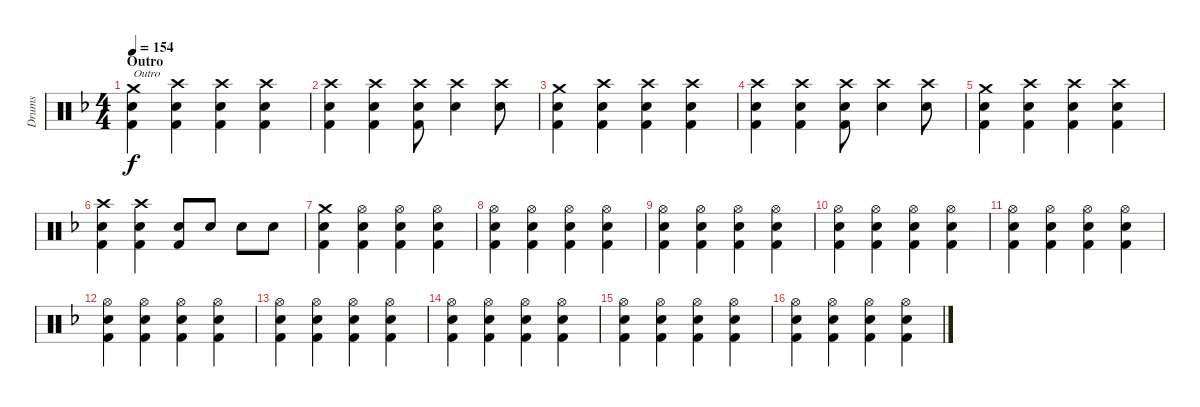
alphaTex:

\track ("Drums" "Drums") {instrument percussion}
\staff {score}
\articulation defaults
\ts (4 4)
\section ("" "Outro")
\tempo 154
\clef neutral
\ks f
("Crash medium (hit)" "Snare (hit) 2" "Kick (hit) 2").4{txt "Outro" dy f} ("Crash high (hit)" "Snare (hit) 2" "Kick (hit) 2").4 ("Crash high (hit)" "Snare (hit) 2" "Kick (hit) 2").4 ("Crash high (hit)" "Snare (hit) 2" "Kick (hit) 2").4 |
("Crash high (hit)" "Snare (hit) 2" "Kick (hit) 2").4 ("Crash high (hit)" "Snare (hit) 2" "Kick (hit) 2").4 ("Crash high (hit)" "Snare (hit) 2" "Kick (hit) 2").8 ("Crash high (hit)" "Snare (hit) 2").4 ("Crash high (hit)" "Snare (hit) 2").8 |
("Crash medium (hit)" "Snare (hit) 2" "Kick (hit) 2").4 ("Crash high (hit)" "Snare (hit) 2" "Kick (hit) 2").4 ("Crash high (hit)" "Snare (hit) 2" "Kick (hit) 2").4 ("Crash high (hit)" "Snare (hit) 2" "Kick (hit) 2").4 |
("Crash high (hit)" "Snare (hit) 2" "Kick (hit) 2").4 ("Crash high (hit)" "Snare (hit) 2" "Kick (hit) 2").4 ("Crash high (hit)" "Snare (hit) 2" "Kick (hit) 2").8 ("Crash high (hit)" "Snare (hit) 2").4 ("Crash high (hit)" "Snare (hit) 2").8 |
("Crash medium (hit)" "Snare (hit) 2" "Kick (hit) 2").4 ("Crash high (hit)" "Snare (hit) 2" "Kick (hit) 2").4 ("Crash high (hit)" "Snare (hit) 2" "Kick (hit) 2").4 ("Crash high (hit)" "Snare (hit) 2" "Kick (hit) 2").4 |
("Crash high (hit)" "Snare (hit) 2" "Kick (hit) 2").4 ("Crash high (hit)" "Snare (hit) 2" "Kick (hit) 2").4 ("Snare (hit) 2" "Kick (hit) 2").8 "Snare (hit) 2".8 "Snare (hit) 2".8 "Snare (hit) 2".8 |
("Crash medium (hit)" "Snare (hit) 2" "Kick (hit) 2").4 ("Hi-Hat (open)" "Snare (hit) 2" "Kick (hit) 2").4 ("Hi-Hat (open)" "Snare (hit) 2" "Kick (hit) 2").4 ("Hi-Hat (open)" "Snare (hit) 2" "Kick (hit) 2").4 |
("Hi-Hat (open)" "Snare (hit) 2" "Kick (hit) 2").4 ("Hi-Hat (open)" "Snare (hit) 2" "Kick (hit) 2").4 ("Hi-Hat (open)" "Snare (hit) 2" "Kick (hit) 2").4 ("Hi-Hat (open)" "Snare (hit) 2" "Kick (hit) 2").4 |
("Hi-Hat (open)" "Snare (hit) 2" "Kick (hit) 2").4 ("Hi-Hat (open)" "Snare (hit) 2" "Kick (hit) 2").4 ("Hi-Hat (open)" "Snare (hit) 2" "Kick (hit) 2").4 ("Hi-Hat (open)" "Snare (hit) 2" "Kick (hit) 2").4 |
("Hi-Hat (open)" "Snare (hit) 2" "Kick (hit) 2").4 ("Hi-Hat (open)" "Snare (hit) 2" "Kick (hit) 2").4 ("Hi-Hat (open)" "Snare (hit) 2" "Kick (hit) 2").4 ("Hi-Hat (open)" "Snare (hit) 2" "Kick (hit) 2").4 |
("Hi-Hat (open)" "Snare (hit) 2" "Kick (hit) 2").4 ("Hi-Hat (open)" "Snare (hit) 2" "Kick (hit) 2").4 ("Hi-Hat (open)" "Snare (hit) 2" "Kick (hit) 2").4 ("Hi-Hat (open)" "Snare (hit) 2" "Kick (hit) 2").4 |
("Hi-Hat (open)" "Snare (hit) 2" "Kick (hit) 2").4 ("Hi-Hat (open)" "Snare (hit) 2" "Kick (hit) 2").4 ("Hi-Hat (open)" "Snare (hit) 2" "Kick (hit) 2").4 ("Hi-Hat (open)" "Snare (hit) 2" "Kick (hit) 2").4 |
("Hi-Hat (open)" "Snare (hit) 2" "Kick (hit) 2").4 ("Hi-Hat (open)" "Snare (hit) 2" "Kick (hit) 2").4 ("Hi-Hat (open)" "Snare (hit) 2" "Kick (hit) 2").4 ("Hi-Hat (open)" "Snare (hit) 2" "Kick (hit) 2").4 |
("Hi-Hat (open)" "Snare (hit) 2" "Kick (hit) 2").4 ("Hi-Hat (open)" "Snare (hit) 2" "Kick (hit) 2").4 ("Hi-Hat (open)" "Snare (hit) 2" "Kick (hit) 2").4 ("Hi-Hat (open)" "Snare (hit) 2" "Kick (hit) 2").4 |
("Hi-Hat (open)" "Snare (hit) 2" "Kick (hit) 2").4{volume 5} ("Hi-Hat (open)" "Snare (hit) 2" "Kick (hit) 2").4 ("Hi-Hat (open)" "Snare (hit) 2" "Kick (hit) 2").4 ("Hi-Hat (open)" "Snare (hit) 2" "Kick (hit) 2").4 |
("Hi-Hat (open)" "Snare (hit) 2" "Kick (hit) 2").4 ("Hi-Hat (open)" "Snare (hit) 2" "Kick (hit) 2").4 ("Hi-Hat (open)" "Snare (hit) 2" "Kick (hit) 2").4 ("Hi-Hat (open)" "Snare (hit) 2" "Kick (hit) 2").4
